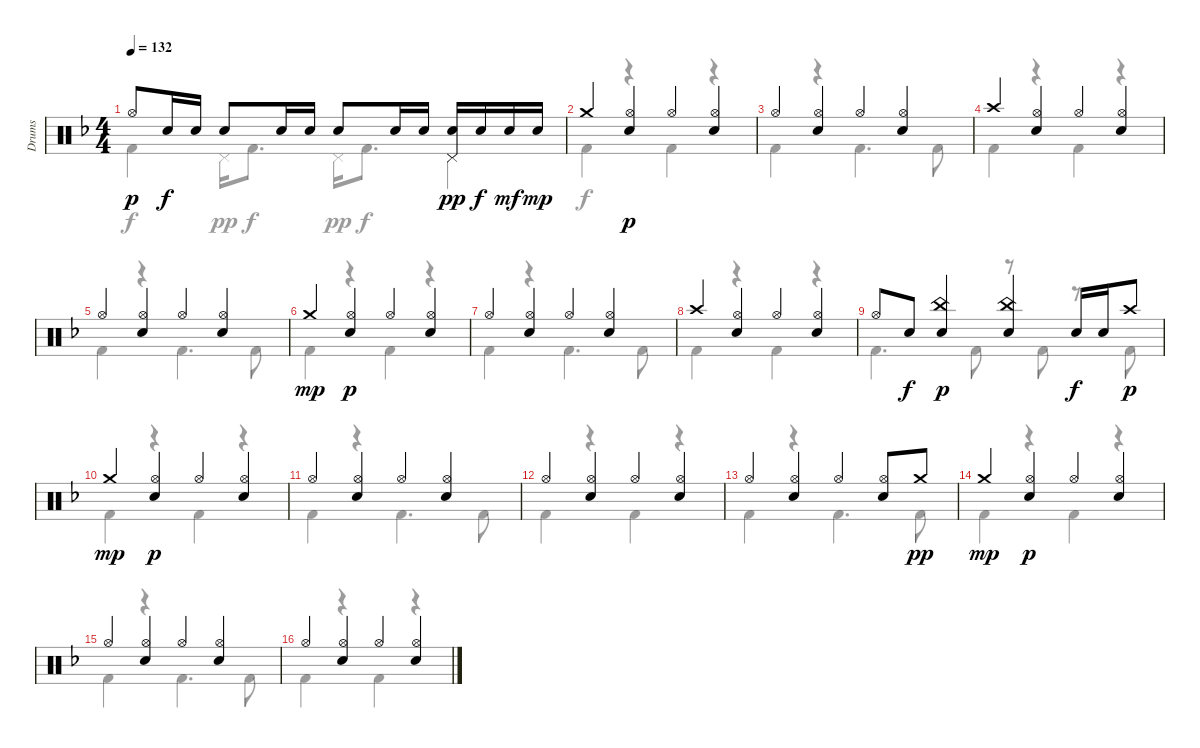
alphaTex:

\track ("Drums" "Drums") {instrument percussion}
\staff {score}
\articulation defaults
\voice
\ts (4 4)
\tempo 132
\clef neutral
\ks f "Hi-Hat (open)".8{dy p} "Electric Snare (hit)".16{dy f} "Electric Snare (hit)".16 "Electric Snare (hit)".8 "Electric Snare (hit)".16 "Electric Snare (hit)".16 "Electric Snare (hit)".8 "Electric Snare (hit)".16 "Electric Snare (hit)".16
("Electric Snare (hit)" "Pedal Hi-Hat (hit)").16{dy pp} "Electric Snare (hit)".16{dy f} "Electric Snare (hit)".16{dy mf} "Electric Snare (hit)".16{dy mp} |
"Crash medium (hit)".4 ("Hi-Hat (open)" "Electric Snare (hit)").4{dy p} "Hi-Hat (open)".4 ("Hi-Hat (open)" "Electric Snare (hit)").4 |
"Hi-Hat (open)".4 ("Hi-Hat (open)" "Electric Snare (hit)").4 "Hi-Hat (open)".4 ("Hi-Hat (open)" "Electric Snare (hit)").4 |
"Crash high (hit)".4 ("Hi-Hat (open)" "Electric Snare (hit)").4 "Hi-Hat (open)".4 ("Hi-Hat (open)" "Electric Snare (hit)").4 |
"Hi-Hat (open)".4 ("Hi-Hat (open)" "Electric Snare (hit)").4 "Hi-Hat (open)".4 ("Hi-Hat (open)" "Electric Snare (hit)").4 |
"Crash medium (hit)".4{dy mp} ("Hi-Hat (open)" "Electric Snare (hit)").4{dy p} "Hi-Hat (open)".4 ("Hi-Hat (open)" "Electric Snare (hit)").4 |
"Hi-Hat (open)".4 ("Hi-Hat (open)" "Electric Snare (hit)").4 "Hi-Hat (open)".4 ("Hi-Hat (open)" "Electric Snare (hit)").4 |
"Crash high (hit)".4 ("Hi-Hat (open)" "Electric Snare (hit)").4 "Hi-Hat (open)".4 ("Hi-Hat (open)" "Electric Snare (hit)").4 |
"Hi-Hat (open)".8 "Electric Snare (hit)".8{dy f} ("China (hit)" "Electric Snare (hit)").4{dy p} ("China (hit)" "Electric Snare (hit)").4 "Electric Snare (hit)".16{dy f} "Electric Snare (hit)".16 "Crash high (hit)".8{dy p} |
"Crash medium (hit)".4{dy mp} ("Hi-Hat (open)" "Electric Snare (hit)").4{dy p} "Hi-Hat (open)".4 ("Hi-Hat (open)" "Electric Snare (hit)").4 |
"Hi-Hat (open)".4 ("Hi-Hat (open)" "Electric Snare (hit)").4 "Hi-Hat (open)".4 ("Hi-Hat (open)" "Electric Snare (hit)").4 |
"Hi-Hat (open)".4 ("Hi-Hat (open)" "Electric Snare (hit)").4 "Hi-Hat (open)".4 ("Hi-Hat (open)" "Electric Snare (hit)").4 |
"Hi-Hat (open)".4 ("Hi-Hat (open)" "Electric Snare (hit)").4 "Hi-Hat (open)".4 ("Hi-Hat (open)" "Electric Snare (hit)").8 "Crash medium (hit)".8{dy pp} |
"Crash medium (hit)".4{dy mp} ("Hi-Hat (open)" "Electric Snare (hit)").4{dy p} "Hi-Hat (open)".4 ("Hi-Hat (open)" "Electric Snare (hit)").4 |
"Hi-Hat (open)".4 ("Hi-Hat (open)" "Electric Snare (hit)").4 "Hi-Hat (open)".4 ("Hi-Hat (open)" "Electric Snare (hit)").4 |
"Hi-Hat (open)".4 ("Hi-Hat (open)" "Electric Snare (hit)").4 "Hi-Hat (open)".4 ("Hi-Hat (open)" "Electric Snare (hit)").4
\voice
\clef neutral
\ottava regular
\simile none
\ks f "Kick (hit) 2".4{dy f} "Pedal Hi-Hat (hit)".16{dy pp} "Kick (hit) 2".8{d dy f} "Pedal Hi-Hat (hit)".16{dy pp} "Kick (hit) 2".8{d dy f} "Pedal Hi-Hat (hit)".4{dy pp}
|
"Kick (hit) 2".4{dy f} r.4 "Kick (hit) 2".4 r.4 |
"Kick (hit) 2".4 r.4 "Kick (hit) 2".4{d} "Kick (hit) 2".8 |
"Kick (hit) 2".4 r.4 "Kick (hit) 2".4 r.4 |
"Kick (hit) 2".4 r.4 "Kick (hit) 2".4{d} "Kick (hit) 2".8 |
"Kick (hit) 2".4 r.4 "Kick (hit) 2".4 r.4 |
"Kick (hit) 2".4 r.4 "Kick (hit) 2".4{d} "Kick (hit) 2".8 |
"Kick (hit) 2".4 r.4 "Kick (hit) 2".4 r.4 |
"Kick (hit) 2".4{d} "Kick (hit) 2".8 r.8 "Kick (hit) 2".8 r.8 "Kick (hit) 2".8 |
"Kick (hit) 2".4 r.4 "Kick (hit) 2".4 r.4 |
"Kick (hit) 2".4 r.4 "Kick (hit) 2".4{d} "Kick (hit) 2".8 |
"Kick (hit) 2".4 r.4 "Kick (hit) 2".4 r.4 |
"Kick (hit) 2".4 r.4 "Kick (hit) 2".4{d} "Kick (hit) 2".8 |
"Kick (hit) 2".4 r.4 "Kick (hit) 2".4 r.4 |
"Kick (hit) 2".4 r.4 "Kick (hit) 2".4{d} "Kick (hit) 2".8 |
"Kick (hit) 2".4 r.4 "Kick (hit) 2".4 r.4
